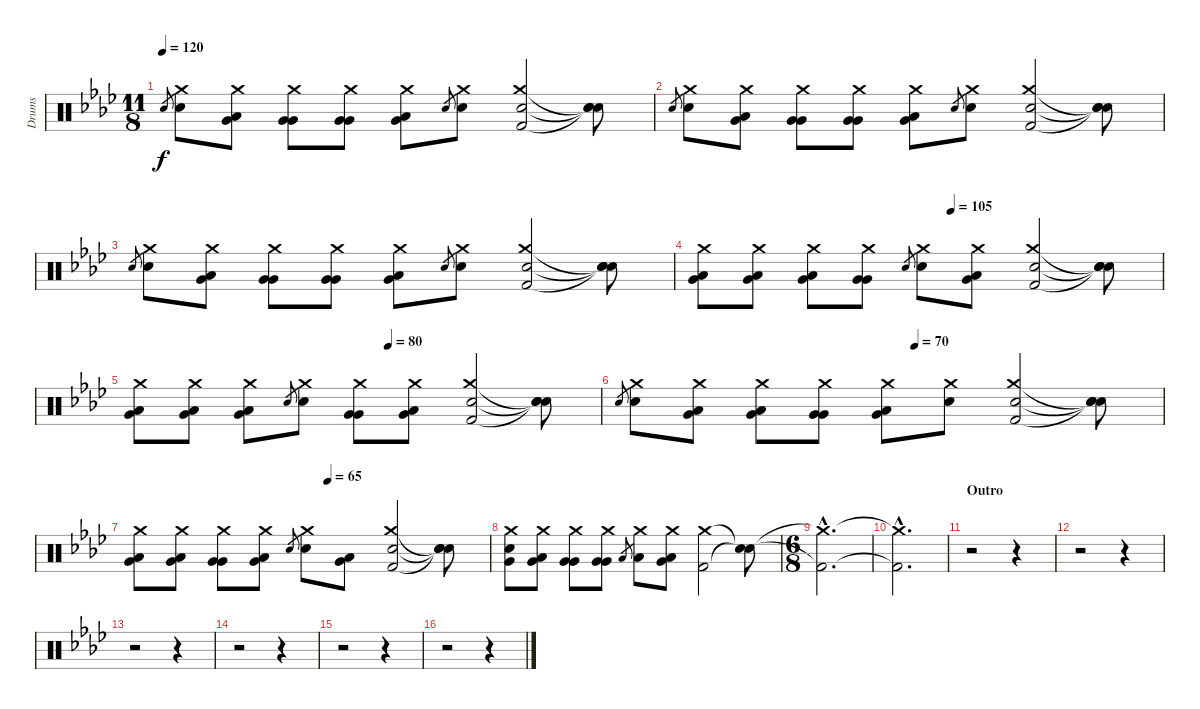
\track ("Drums" "Drums") {instrument percussion}
\staff {score}
\articulation defaults
\ts (11 8)
\tempo 120
\clef neutral
\ks ab "Electric Snare (hit)".8{gr dy f}
("Crash medium (hit)" "Electric Snare (hit)").8 ("Crash medium (hit)" "Low Tom (hit)" "Very Low Tom (hit)").8 ("Crash medium (hit)" "Very Low Tom (hit)" "Very Low Tom (hit)").8 ("Crash medium (hit)" "Very Low Tom (hit)" "Very Low Tom (hit)").8 ("Crash medium (hit)" "Low Tom (hit)" "Very Low Tom (hit)").8 "Electric Snare (hit)".8{gr} ("Crash medium (hit)" "Electric Snare (hit)").8 ("Crash medium (hit)" "Electric Snare (hit)" "Kick (hit) 2").2 ("Snare (hit)"{t} "Snare (hit)"{t} "Snare (hit)"{t}).8 |
"Electric Snare (hit)".8{gr} ("Crash medium (hit)" "Electric Snare (hit)").8 ("Crash medium (hit)" "Low Tom (hit)" "Very Low Tom (hit)").8 ("Crash medium (hit)" "Very Low Tom (hit)" "Very Low Tom (hit)").8 ("Crash medium (hit)" "Very Low Tom (hit)" "Very Low Tom (hit)").8 ("Crash medium (hit)" "Low Tom (hit)" "Very Low Tom (hit)").8 "Electric Snare (hit)".8{gr} ("Crash medium (hit)" "Electric Snare (hit)").8 ("Crash medium (hit)" "Electric Snare (hit)" "Kick (hit) 2").2 ("Snare (hit)"{t} "Snare (hit)"{t} "Snare (hit)"{t}).8 |
"Electric Snare (hit)".8{gr} ("Crash medium (hit)" "Electric Snare (hit)").8 ("Crash medium (hit)" "Low Tom (hit)" "Very Low Tom (hit)").8 ("Crash medium (hit)" "Very Low Tom (hit)" "Very Low Tom (hit)").8 ("Crash medium (hit)" "Very Low Tom (hit)" "Very Low Tom (hit)").8 ("Crash medium (hit)" "Low Tom (hit)" "Very Low Tom (hit)").8 "Electric Snare (hit)".8{gr} ("Crash medium (hit)" "Electric Snare (hit)").8 ("Crash medium (hit)" "Electric Snare (hit)" "Kick (hit) 2").2 ("Snare (hit)"{t} "Snare (hit)"{t} "Snare (hit)"{t}).8 |
\tempo (105 0.5454545454545454)
("Crash medium (hit)" "Low Tom (hit)" "Very Low Tom (hit)").8 ("Crash medium (hit)" "Low Tom (hit)" "Very Low Tom (hit)").8 ("Crash medium (hit)" "Low Tom (hit)" "Very Low Tom (hit)").8 ("Crash medium (hit)" "Very Low Tom (hit)" "Very Low Tom (hit)").8 "Electric Snare (hit)".8{gr} ("Crash medium (hit)" "Electric Snare (hit)").8 ("Crash medium (hit)" "Very Low Tom (hit)" "Low Tom (hit)").8 ("Crash medium (hit)" "Electric Snare (hit)" "Kick (hit) 2").2 ("Snare (hit)"{t} "Snare (hit)"{t} "Snare (hit)"{t}).8 |
\tempo (80 0.5454545454545454)
("Crash medium (hit)" "Low Tom (hit)" "Very Low Tom (hit)").8 ("Crash medium (hit)" "Low Tom (hit)" "Very Low Tom (hit)").8 ("Crash medium (hit)" "Low Tom (hit)" "Very Low Tom (hit)").8 "Electric Snare (hit)".8{gr} ("Crash medium (hit)" "Electric Snare (hit)").8 ("Crash medium (hit)" "Very Low Tom (hit)" "Very Low Tom (hit)").8 ("Crash medium (hit)" "Very Low Tom (hit)" "Low Tom (hit)").8 ("Crash medium (hit)" "Electric Snare (hit)" "Kick (hit) 2").2 ("Snare (hit)"{t} "Snare (hit)"{t} "Snare (hit)"{t}).8 |
\tempo (70 0.5454545454545454)
"Electric Snare (hit)".8{gr} ("Crash medium (hit)" "Electric Snare (hit)").8 ("Crash medium (hit)" "Low Tom (hit)" "Very Low Tom (hit)").8 ("Crash medium (hit)" "Low Tom (hit)" "Very Low Tom (hit)").8 ("Crash medium (hit)" "Very Low Tom (hit)" "Very Low Tom (hit)").8 ("Crash medium (hit)" "Low Tom (hit)" "Very Low Tom (hit)").8 ("Crash medium (hit)" "Electric Snare (hit)").8 ("Crash medium (hit)" "Electric Snare (hit)" "Kick (hit) 2").2 ("Snare (hit)"{t} "Snare (hit)"{t} "Snare (hit)"{t}).8 |
\tempo (65 0.5454545454545454)
("Crash medium (hit)" "Low Tom (hit)" "Very Low Tom (hit)").8 ("Crash medium (hit)" "Low Tom (hit)" "Very Low Tom (hit)").8 ("Crash medium (hit)" "Very Low Tom (hit)" "Very Low Tom (hit)").8 ("Crash medium (hit)" "Low Tom (hit)" "Very Low Tom (hit)").8 "Electric Snare (hit)".8{gr} ("Crash medium (hit)" "Electric Snare (hit)").8 ("Very Low Tom (hit)" "Low Tom (hit)").8 ("Crash medium (hit)" "Electric Snare (hit)" "Kick (hit) 2").2 ("Snare (hit)"{t} "Snare (hit)"{t} "Snare (hit)"{t}).8 |
("Crash medium (hit)" "Electric Snare (hit)" "Very Low Tom (hit)").8 ("Crash medium (hit)" "Low Tom (hit)" "Very Low Tom (hit)").8 ("Crash medium (hit)" "Very Low Tom (hit)" "Very Low Tom (hit)").8 ("Crash medium (hit)" "Very Low Tom (hit)" "Very Low Tom (hit)").8 "Low Tom (hit)".8{gr} ("Crash medium (hit)" "Low Tom (hit)").8 ("Crash medium (hit)" "Low Floor Tom (hit)" "Very Low Tom (hit)").8 ("Crash medium (hit)" "Kick (hit) 2").2 ("Snare (hit)"{t} "Snare (hit)"{t}).8 |
\ts (6 8)
("Crash medium (hit)"{hac t} "Kick (hit) 2"{hac t}).2{d} |
("Crash medium (hit)"{hac t} "Kick (hit) 2"{hac t}).2{d} |
\section ("" "Outro")
r.2 r.4 |
r.2 r.4 |
r.2 r.4 |
r.2 r.4 |
r.2 r.4 |
r.2 r.4
